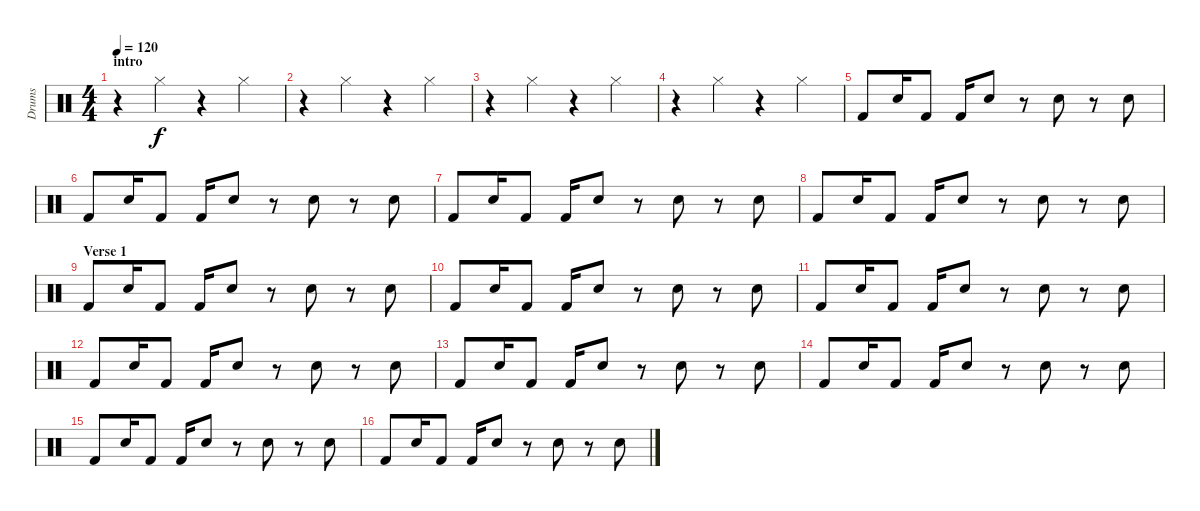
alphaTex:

\track ("Drums" "Drums") {instrument percussion}
\staff {score}
\articulation defaults
\ts (4 4)
\section ("" "intro")
\tempo 120
\clef neutral
\ks c
r.4{dy f} "Hi-Hat (closed)".4 r.4 "Hi-Hat (closed)".4 |
r.4 "Hi-Hat (closed)".4 r.4 "Hi-Hat (closed)".4 |
r.4 "Hi-Hat (closed)".4 r.4 "Hi-Hat (closed)".4 |
r.4 "Hi-Hat (closed)".4 r.4 "Hi-Hat (closed)".4 |
"Kick (hit) 2".8 "Electric Snare (hit)".16 "Kick (hit) 2".8 "Kick (hit) 2".16 "Electric Snare (hit)".8 r.8 "Electric Snare (hit)".8 r.8 "Electric Snare (hit)".8 |
"Kick (hit) 2".8 "Electric Snare (hit)".16 "Kick (hit) 2".8 "Kick (hit) 2".16 "Electric Snare (hit)".8 r.8 "Electric Snare (hit)".8 r.8 "Electric Snare (hit)".8 |
"Kick (hit) 2".8 "Electric Snare (hit)".16 "Kick (hit) 2".8 "Kick (hit) 2".16 "Electric Snare (hit)".8 r.8 "Electric Snare (hit)".8 r.8 "Electric Snare (hit)".8 |
"Kick (hit) 2".8 "Electric Snare (hit)".16 "Kick (hit) 2".8 "Kick (hit) 2".16 "Electric Snare (hit)".8 r.8 "Electric Snare (hit)".8 r.8 "Electric Snare (hit)".8 |
\section ("" "Verse 1")
"Kick (hit) 2".8 "Electric Snare (hit)".16 "Kick (hit) 2".8 "Kick (hit) 2".16 "Electric Snare (hit)".8 r.8 "Electric Snare (hit)".8 r.8 "Electric Snare (hit)".8 |
"Kick (hit) 2".8 "Electric Snare (hit)".16 "Kick (hit) 2".8 "Kick (hit) 2".16 "Electric Snare (hit)".8 r.8 "Electric Snare (hit)".8 r.8 "Electric Snare (hit)".8 |
"Kick (hit) 2".8 "Electric Snare (hit)".16 "Kick (hit) 2".8 "Kick (hit) 2".16 "Electric Snare (hit)".8 r.8 "Electric Snare (hit)".8 r.8 "Electric Snare (hit)".8 |
"Kick (hit) 2".8 "Electric Snare (hit)".16 "Kick (hit) 2".8 "Kick (hit) 2".16 "Electric Snare (hit)".8 r.8 "Electric Snare (hit)".8 r.8 "Electric Snare (hit)".8 |
"Kick (hit) 2".8 "Electric Snare (hit)".16 "Kick (hit) 2".8 "Kick (hit) 2".16 "Electric Snare (hit)".8 r.8 "Electric Snare (hit)".8 r.8 "Electric Snare (hit)".8 |
"Kick (hit) 2".8 "Electric Snare (hit)".16 "Kick (hit) 2".8 "Kick (hit) 2".16 "Electric Snare (hit)".8 r.8 "Electric Snare (hit)".8 r.8 "Electric Snare (hit)".8 |
"Kick (hit) 2".8 "Electric Snare (hit)".16 "Kick (hit) 2".8 "Kick (hit) 2".16 "Electric Snare (hit)".8 r.8 "Electric Snare (hit)".8 r.8 "Electric Snare (hit)".8 |
"Kick (hit) 2".8 "Electric Snare (hit)".16 "Kick (hit) 2".8 "Kick (hit) 2".16 "Electric Snare (hit)".8 r.8 "Electric Snare (hit)".8 r.8 "Electric Snare (hit)".8
